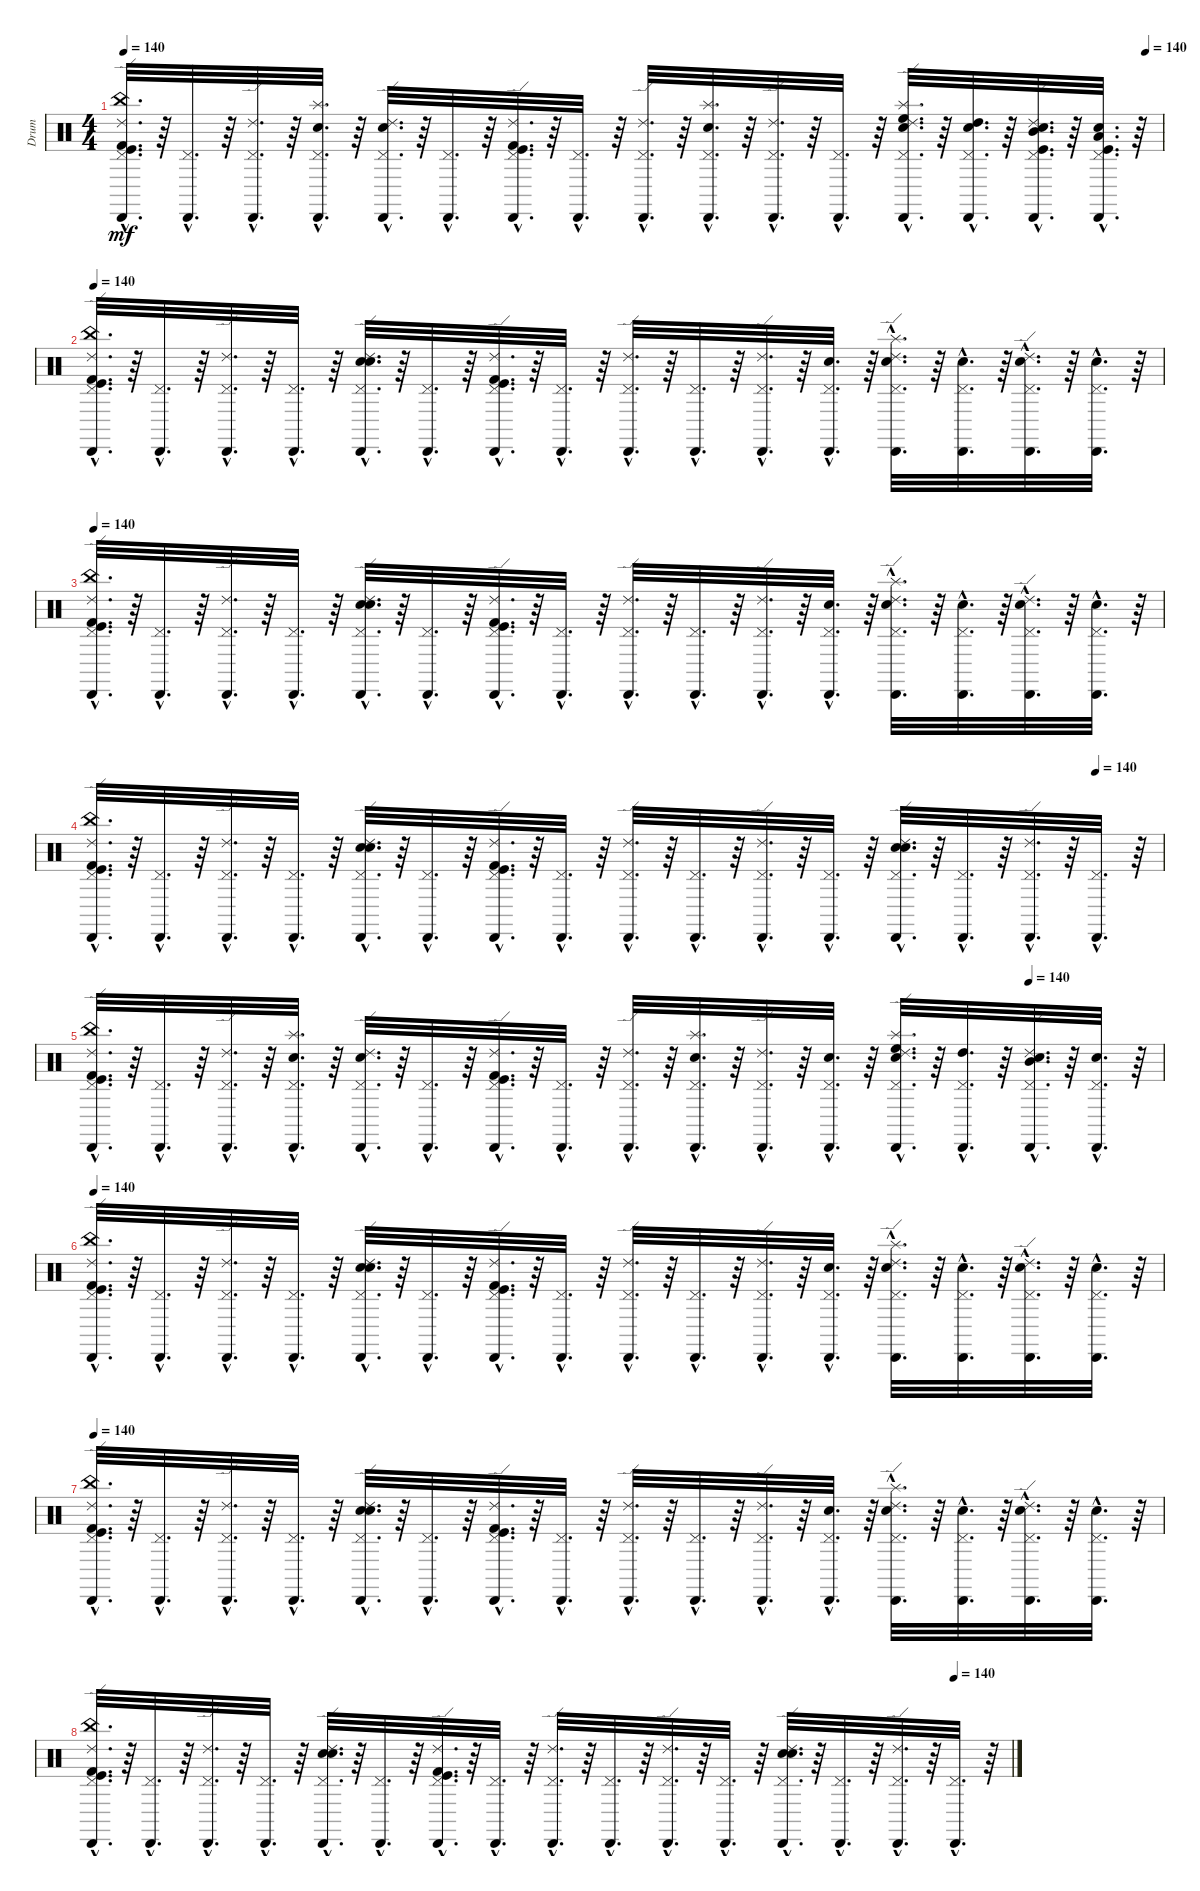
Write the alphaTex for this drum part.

\track ("Drum" "Drum") {instrument percussion}
\staff {score}
\articulation defaults
\ts (4 4)
\tempo 140
\tempo (140 0.984375)
\clef neutral
\ks c
("Pedal Hi-Hat (hit)"{hac} "Kick (hit)"{hac} "Kick (hit) 2"{hac} "Ride (edge) 2"{hac} "Cabasa (hit)"{hac} "China (hit)"{hac}).32{d dy mf} r.64 ("Cabasa (hit)"{hac} "Pedal Hi-Hat (hit)"{hac}).32{d} r.64 ("Pedal Hi-Hat (hit)"{hac} "Cabasa (hit)"{hac} "Ride (edge) 2"{hac}).32{d} r.64 ("Cabasa (hit)"{hac} "Pedal Hi-Hat (hit)"{hac} "Snare (hit) 2"{hac} "Splash (hit)"{hac}).32{d} r.64 ("Pedal Hi-Hat (hit)"{hac} "Cabasa (hit)"{hac} "Ride (edge) 2"{hac} "Snare (hit) 2"{hac}).32{d} r.64 ("Pedal Hi-Hat (hit)"{hac} "Cabasa (hit)"{hac}).32{d} r.64 ("Pedal Hi-Hat (hit)"{hac} "Kick (hit) 2"{hac} "Kick (hit)"{hac} "Cabasa (hit)"{hac} "Ride (edge) 2"{hac}).32{d} r.64 ("Cabasa (hit)"{hac} "Pedal Hi-Hat (hit)"{hac}).32{d} r.64 ("Ride (edge) 2"{hac} "Pedal Hi-Hat (hit)"{hac} "Cabasa (hit)"{hac}).32{d} r.64 ("Cabasa (hit)"{hac} "Pedal Hi-Hat (hit)"{hac} "Snare (hit) 2"{hac} "Splash (hit)"{hac}).32{d} r.64 ("Ride (edge) 2"{hac} "Cabasa (hit)"{hac} "Pedal Hi-Hat (hit)"{hac}).32{d} r.64 ("Cabasa (hit)"{hac} "Pedal Hi-Hat (hit)"{hac}).32{d} r.64 ("Pedal Hi-Hat (hit)"{hac} "Cabasa (hit)"{hac} "Ride (edge) 2"{hac} "Snare (hit) 2"{hac} "Splash (hit)"{hac} "High Floor Tom (hit)"{hac}).32{d} r.64 ("Cabasa (hit)"{hac} "Pedal Hi-Hat (hit)"{hac} "Snare (hit) 2"{hac} "High Tom (hit)"{hac}).32{d} r.64 ("Pedal Hi-Hat (hit)"{hac} "Cabasa (hit)"{hac} "Ride (edge) 2"{hac} "Snare (hit) 2"{hac} "Mid Tom (hit)"{hac} "Kick (hit)"{hac}).32{d} r.64 ("Cabasa (hit)"{hac} "Pedal Hi-Hat (hit)"{hac} "Snare (hit) 2"{hac} "Low Tom (hit)"{hac} "Kick (hit)"{hac}).32{d} r.64 |
\tempo 140
("Kick (hit)"{hac} "Kick (hit) 2"{hac} "Ride (edge) 2"{hac} "Pedal Hi-Hat (hit)"{hac} "Cabasa (hit)"{hac} "China (hit)"{hac}).32{d} r.64 ("Pedal Hi-Hat (hit)"{hac} "Cabasa (hit)"{hac}).32{d} r.64 ("Cabasa (hit)"{hac} "Ride (edge) 2"{hac} "Pedal Hi-Hat (hit)"{hac}).32{d} r.64 ("Cabasa (hit)"{hac} "Pedal Hi-Hat (hit)"{hac}).32{d} r.64 ("Electric Snare (hit)"{hac} "Cabasa (hit)"{hac} "Snare (hit) 2"{hac} "Ride (edge) 2"{hac} "Pedal Hi-Hat (hit)"{hac}).32{d} r.64 ("Cabasa (hit)"{hac} "Pedal Hi-Hat (hit)"{hac}).32{d} r.64 ("Ride (edge) 2"{hac} "Cabasa (hit)"{hac} "Kick (hit) 2"{hac} "Pedal Hi-Hat (hit)"{hac} "Kick (hit)"{hac}).32{d} r.64 ("Cabasa (hit)"{hac} "Pedal Hi-Hat (hit)"{hac}).32{d} r.64 ("Pedal Hi-Hat (hit)"{hac} "Ride (edge) 2"{hac} "Cabasa (hit)"{hac}).32{d} r.64 ("Pedal Hi-Hat (hit)"{hac} "Cabasa (hit)"{hac}).32{d} r.64 ("Cabasa (hit)"{hac} "Pedal Hi-Hat (hit)"{hac} "Ride (edge) 2"{hac}).32{d} r.64 ("Pedal Hi-Hat (hit)"{hac} "Cabasa (hit)"{hac} "Snare (hit) 2"{hac}).32{d} r.64 ("Splash (hit)"{hac} "Snare (hit) 2"{hac} "Cabasa (hit)"{hac} "Pedal Hi-Hat (hit)"{hac} "Ride (edge) 2"{hac}).32{d} r.64 ("Cabasa (hit)"{hac} "Pedal Hi-Hat (hit)"{hac} "Snare (hit) 2"{hac}).32{d} r.64 ("Ride (edge) 2"{hac} "Cabasa (hit)"{hac} "Pedal Hi-Hat (hit)"{hac} "Snare (hit) 2"{hac}).32{d} r.64 ("Cabasa (hit)"{hac} "Pedal Hi-Hat (hit)"{hac} "Snare (hit) 2"{hac}).32{d} r.64 |
\tempo 140
("China (hit)"{hac} "Cabasa (hit)"{hac} "Kick (hit)"{hac} "Ride (edge) 2"{hac} "Kick (hit) 2"{hac} "Pedal Hi-Hat (hit)"{hac}).32{d} r.64 ("Pedal Hi-Hat (hit)"{hac} "Cabasa (hit)"{hac}).32{d} r.64 ("Cabasa (hit)"{hac} "Pedal Hi-Hat (hit)"{hac} "Ride (edge) 2"{hac}).32{d} r.64 ("Pedal Hi-Hat (hit)"{hac} "Cabasa (hit)"{hac}).32{d} r.64 ("Ride (edge) 2"{hac} "Electric Snare (hit)"{hac} "Cabasa (hit)"{hac} "Snare (hit) 2"{hac} "Pedal Hi-Hat (hit)"{hac}).32{d} r.64 ("Pedal Hi-Hat (hit)"{hac} "Cabasa (hit)"{hac}).32{d} r.64 ("Ride (edge) 2"{hac} "Kick (hit)"{hac} "Cabasa (hit)"{hac} "Pedal Hi-Hat (hit)"{hac} "Kick (hit) 2"{hac}).32{d} r.64 ("Pedal Hi-Hat (hit)"{hac} "Cabasa (hit)"{hac}).32{d} r.64 ("Ride (edge) 2"{hac} "Pedal Hi-Hat (hit)"{hac} "Cabasa (hit)"{hac}).32{d} r.64 ("Cabasa (hit)"{hac} "Pedal Hi-Hat (hit)"{hac}).32{d} r.64 ("Pedal Hi-Hat (hit)"{hac} "Ride (edge) 2"{hac} "Cabasa (hit)"{hac}).32{d} r.64 ("Cabasa (hit)"{hac} "Pedal Hi-Hat (hit)"{hac} "Snare (hit) 2"{hac}).32{d} r.64 ("Splash (hit)"{hac} "Snare (hit) 2"{hac} "Cabasa (hit)"{hac} "Ride (edge) 2"{hac} "Pedal Hi-Hat (hit)"{hac}).32{d} r.64 ("Pedal Hi-Hat (hit)"{hac} "Cabasa (hit)"{hac} "Snare (hit) 2"{hac}).32{d} r.64 ("Pedal Hi-Hat (hit)"{hac} "Cabasa (hit)"{hac} "Snare (hit) 2"{hac} "Ride (edge) 2"{hac}).32{d} r.64 ("Pedal Hi-Hat (hit)"{hac} "Cabasa (hit)"{hac} "Snare (hit) 2"{hac}).32{d} r.64 |
\tempo (140 0.9375)
("China (hit)"{hac} "Kick (hit)"{hac} "Kick (hit) 2"{hac} "Ride (edge) 2"{hac} "Pedal Hi-Hat (hit)"{hac} "Cabasa (hit)"{hac}).32{d} r.64 ("Cabasa (hit)"{hac} "Pedal Hi-Hat (hit)"{hac}).32{d} r.64 ("Ride (edge) 2"{hac} "Cabasa (hit)"{hac} "Pedal Hi-Hat (hit)"{hac}).32{d} r.64 ("Cabasa (hit)"{hac} "Pedal Hi-Hat (hit)"{hac}).32{d} r.64 ("Electric Snare (hit)"{hac} "Snare (hit) 2"{hac} "Ride (edge) 2"{hac} "Pedal Hi-Hat (hit)"{hac} "Cabasa (hit)"{hac}).32{d} r.64 ("Cabasa (hit)"{hac} "Pedal Hi-Hat (hit)"{hac}).32{d} r.64 ("Pedal Hi-Hat (hit)"{hac} "Kick (hit)"{hac} "Ride (edge) 2"{hac} "Cabasa (hit)"{hac} "Kick (hit) 2"{hac}).32{d} r.64 ("Cabasa (hit)"{hac} "Pedal Hi-Hat (hit)"{hac}).32{d} r.64 ("Cabasa (hit)"{hac} "Ride (edge) 2"{hac} "Pedal Hi-Hat (hit)"{hac}).32{d} r.64 ("Cabasa (hit)"{hac} "Pedal Hi-Hat (hit)"{hac}).32{d} r.64 ("Ride (edge) 2"{hac} "Cabasa (hit)"{hac} "Pedal Hi-Hat (hit)"{hac}).32{d} r.64 ("Cabasa (hit)"{hac} "Pedal Hi-Hat (hit)"{hac}).32{d} r.64 ("Electric Snare (hit)"{hac} "Snare (hit) 2"{hac} "Pedal Hi-Hat (hit)"{hac} "Cabasa (hit)"{hac} "Ride (edge) 2"{hac}).32{d} r.64 ("Cabasa (hit)"{hac} "Pedal Hi-Hat (hit)"{hac}).32{d} r.64 ("Ride (edge) 2"{hac} "Cabasa (hit)"{hac} "Pedal Hi-Hat (hit)"{hac}).32{d} r.64 ("Cabasa (hit)"{hac} "Pedal Hi-Hat (hit)"{hac}).32{d} r.64 |
\tempo (140 0.875)
("China (hit)"{hac} "Cabasa (hit)"{hac} "Ride (edge) 2"{hac} "Kick (hit) 2"{hac} "Kick (hit)"{hac} "Pedal Hi-Hat (hit)"{hac}).32{d} r.64 ("Pedal Hi-Hat (hit)"{hac} "Cabasa (hit)"{hac}).32{d} r.64 ("Ride (edge) 2"{hac} "Cabasa (hit)"{hac} "Pedal Hi-Hat (hit)"{hac}).32{d} r.64 ("Splash (hit)"{hac} "Snare (hit) 2"{hac} "Pedal Hi-Hat (hit)"{hac} "Cabasa (hit)"{hac}).32{d} r.64 ("Snare (hit) 2"{hac} "Ride (edge) 2"{hac} "Cabasa (hit)"{hac} "Pedal Hi-Hat (hit)"{hac}).32{d} r.64 ("Cabasa (hit)"{hac} "Pedal Hi-Hat (hit)"{hac}).32{d} r.64 ("Ride (edge) 2"{hac} "Cabasa (hit)"{hac} "Kick (hit)"{hac} "Kick (hit) 2"{hac} "Pedal Hi-Hat (hit)"{hac}).32{d} r.64 ("Pedal Hi-Hat (hit)"{hac} "Cabasa (hit)"{hac}).32{d} r.64 ("Cabasa (hit)"{hac} "Pedal Hi-Hat (hit)"{hac} "Ride (edge) 2"{hac}).32{d} r.64 ("Splash (hit)"{hac} "Snare (hit) 2"{hac} "Pedal Hi-Hat (hit)"{hac} "Cabasa (hit)"{hac}).32{d} r.64 ("Pedal Hi-Hat (hit)"{hac} "Cabasa (hit)"{hac} "Ride (edge) 2"{hac}).32{d} r.64 ("Snare (hit) 2"{hac} "Pedal Hi-Hat (hit)"{hac} "Cabasa (hit)"{hac}).32{d} r.64 ("Splash (hit)"{hac} "High Floor Tom (hit)"{hac} "Snare (hit) 2"{hac} "Ride (edge) 2"{hac} "Cabasa (hit)"{hac} "Pedal Hi-Hat (hit)"{hac}).32{d} r.64 ("High Tom (hit)"{hac} "Pedal Hi-Hat (hit)"{hac} "Cabasa (hit)"{hac}).32{d} r.64 ("Mid Tom (hit)"{hac} "Snare (hit) 2"{hac} "Ride (edge) 2"{hac} "Cabasa (hit)"{hac} "Pedal Hi-Hat (hit)"{hac}).32{d} r.64 ("Snare (hit) 2"{hac} "Pedal Hi-Hat (hit)"{hac} "Cabasa (hit)"{hac}).32{d} r.64 |
\tempo 140
("China (hit)"{hac} "Cabasa (hit)"{hac} "Pedal Hi-Hat (hit)"{hac} "Ride (edge) 2"{hac} "Kick (hit) 2"{hac} "Kick (hit)"{hac}).32{d} r.64 ("Cabasa (hit)"{hac} "Pedal Hi-Hat (hit)"{hac}).32{d} r.64 ("Pedal Hi-Hat (hit)"{hac} "Ride (edge) 2"{hac} "Cabasa (hit)"{hac}).32{d} r.64 ("Pedal Hi-Hat (hit)"{hac} "Cabasa (hit)"{hac}).32{d} r.64 ("Pedal Hi-Hat (hit)"{hac} "Ride (edge) 2"{hac} "Snare (hit) 2"{hac} "Cabasa (hit)"{hac} "Electric Snare (hit)"{hac}).32{d} r.64 ("Pedal Hi-Hat (hit)"{hac} "Cabasa (hit)"{hac}).32{d} r.64 ("Kick (hit)"{hac} "Pedal Hi-Hat (hit)"{hac} "Kick (hit) 2"{hac} "Cabasa (hit)"{hac} "Ride (edge) 2"{hac}).32{d} r.64 ("Pedal Hi-Hat (hit)"{hac} "Cabasa (hit)"{hac}).32{d} r.64 ("Cabasa (hit)"{hac} "Ride (edge) 2"{hac} "Pedal Hi-Hat (hit)"{hac}).32{d} r.64 ("Cabasa (hit)"{hac} "Pedal Hi-Hat (hit)"{hac}).32{d} r.64 ("Ride (edge) 2"{hac} "Pedal Hi-Hat (hit)"{hac} "Cabasa (hit)"{hac}).32{d} r.64 ("Snare (hit) 2"{hac} "Cabasa (hit)"{hac} "Pedal Hi-Hat (hit)"{hac}).32{d} r.64 ("Ride (edge) 2"{hac} "Pedal Hi-Hat (hit)"{hac} "Cabasa (hit)"{hac} "Snare (hit) 2"{hac} "Splash (hit)"{hac}).32{d} r.64 ("Snare (hit) 2"{hac} "Pedal Hi-Hat (hit)"{hac} "Cabasa (hit)"{hac}).32{d} r.64 ("Snare (hit) 2"{hac} "Pedal Hi-Hat (hit)"{hac} "Cabasa (hit)"{hac} "Ride (edge) 2"{hac}).32{d} r.64 ("Snare (hit) 2"{hac} "Pedal Hi-Hat (hit)"{hac} "Cabasa (hit)"{hac}).32{d} r.64 |
\tempo 140
("Pedal Hi-Hat (hit)"{hac} "Kick (hit) 2"{hac} "Ride (edge) 2"{hac} "Kick (hit)"{hac} "Cabasa (hit)"{hac} "China (hit)"{hac}).32{d} r.64 ("Cabasa (hit)"{hac} "Pedal Hi-Hat (hit)"{hac}).32{d} r.64 ("Ride (edge) 2"{hac} "Pedal Hi-Hat (hit)"{hac} "Cabasa (hit)"{hac}).32{d} r.64 ("Cabasa (hit)"{hac} "Pedal Hi-Hat (hit)"{hac}).32{d} r.64 ("Pedal Hi-Hat (hit)"{hac} "Snare (hit) 2"{hac} "Cabasa (hit)"{hac} "Electric Snare (hit)"{hac} "Ride (edge) 2"{hac}).32{d} r.64 ("Cabasa (hit)"{hac} "Pedal Hi-Hat (hit)"{hac}).32{d} r.64 ("Kick (hit) 2"{hac} "Pedal Hi-Hat (hit)"{hac} "Cabasa (hit)"{hac} "Kick (hit)"{hac} "Ride (edge) 2"{hac}).32{d} r.64 ("Cabasa (hit)"{hac} "Pedal Hi-Hat (hit)"{hac}).32{d} r.64 ("Cabasa (hit)"{hac} "Pedal Hi-Hat (hit)"{hac} "Ride (edge) 2"{hac}).32{d} r.64 ("Pedal Hi-Hat (hit)"{hac} "Cabasa (hit)"{hac}).32{d} r.64 ("Cabasa (hit)"{hac} "Ride (edge) 2"{hac} "Pedal Hi-Hat (hit)"{hac}).32{d} r.64 ("Snare (hit) 2"{hac} "Pedal Hi-Hat (hit)"{hac} "Cabasa (hit)"{hac}).32{d} r.64 ("Pedal Hi-Hat (hit)"{hac} "Ride (edge) 2"{hac} "Cabasa (hit)"{hac} "Snare (hit) 2"{hac} "Splash (hit)"{hac}).32{d} r.64 ("Snare (hit) 2"{hac} "Cabasa (hit)"{hac} "Pedal Hi-Hat (hit)"{hac}).32{d} r.64 ("Ride (edge) 2"{hac} "Snare (hit) 2"{hac} "Cabasa (hit)"{hac} "Pedal Hi-Hat (hit)"{hac}).32{d} r.64 ("Snare (hit) 2"{hac} "Cabasa (hit)"{hac} "Pedal Hi-Hat (hit)"{hac}).32{d} r.64 |
\tempo (140 0.9375)
("Cabasa (hit)"{hac} "Pedal Hi-Hat (hit)"{hac} "Ride (edge) 2"{hac} "Kick (hit) 2"{hac} "Kick (hit)"{hac} "China (hit)"{hac}).32{d} r.64 ("Pedal Hi-Hat (hit)"{hac} "Cabasa (hit)"{hac}).32{d} r.64 ("Pedal Hi-Hat (hit)"{hac} "Cabasa (hit)"{hac} "Ride (edge) 2"{hac}).32{d} r.64 ("Pedal Hi-Hat (hit)"{hac} "Cabasa (hit)"{hac}).32{d} r.64 ("Cabasa (hit)"{hac} "Pedal Hi-Hat (hit)"{hac} "Ride (edge) 2"{hac} "Snare (hit) 2"{hac} "Electric Snare (hit)"{hac}).32{d} r.64 ("Pedal Hi-Hat (hit)"{hac} "Cabasa (hit)"{hac}).32{d} r.64 ("Kick (hit) 2"{hac} "Cabasa (hit)"{hac} "Ride (edge) 2"{hac} "Kick (hit)"{hac} "Pedal Hi-Hat (hit)"{hac}).32{d} r.64 ("Pedal Hi-Hat (hit)"{hac} "Cabasa (hit)"{hac}).32{d} r.64 ("Pedal Hi-Hat (hit)"{hac} "Ride (edge) 2"{hac} "Cabasa (hit)"{hac}).32{d} r.64 ("Pedal Hi-Hat (hit)"{hac} "Cabasa (hit)"{hac}).32{d} r.64 ("Pedal Hi-Hat (hit)"{hac} "Cabasa (hit)"{hac} "Ride (edge) 2"{hac}).32{d} r.64 ("Pedal Hi-Hat (hit)"{hac} "Cabasa (hit)"{hac}).32{d} r.64 ("Ride (edge) 2"{hac} "Cabasa (hit)"{hac} "Pedal Hi-Hat (hit)"{hac} "Snare (hit) 2"{hac} "Electric Snare (hit)"{hac}).32{d} r.64 ("Pedal Hi-Hat (hit)"{hac} "Cabasa (hit)"{hac}).32{d} r.64 ("Pedal Hi-Hat (hit)"{hac} "Cabasa (hit)"{hac} "Ride (edge) 2"{hac}).32{d} r.64 ("Pedal Hi-Hat (hit)"{hac} "Cabasa (hit)"{hac}).32{d} r.64
